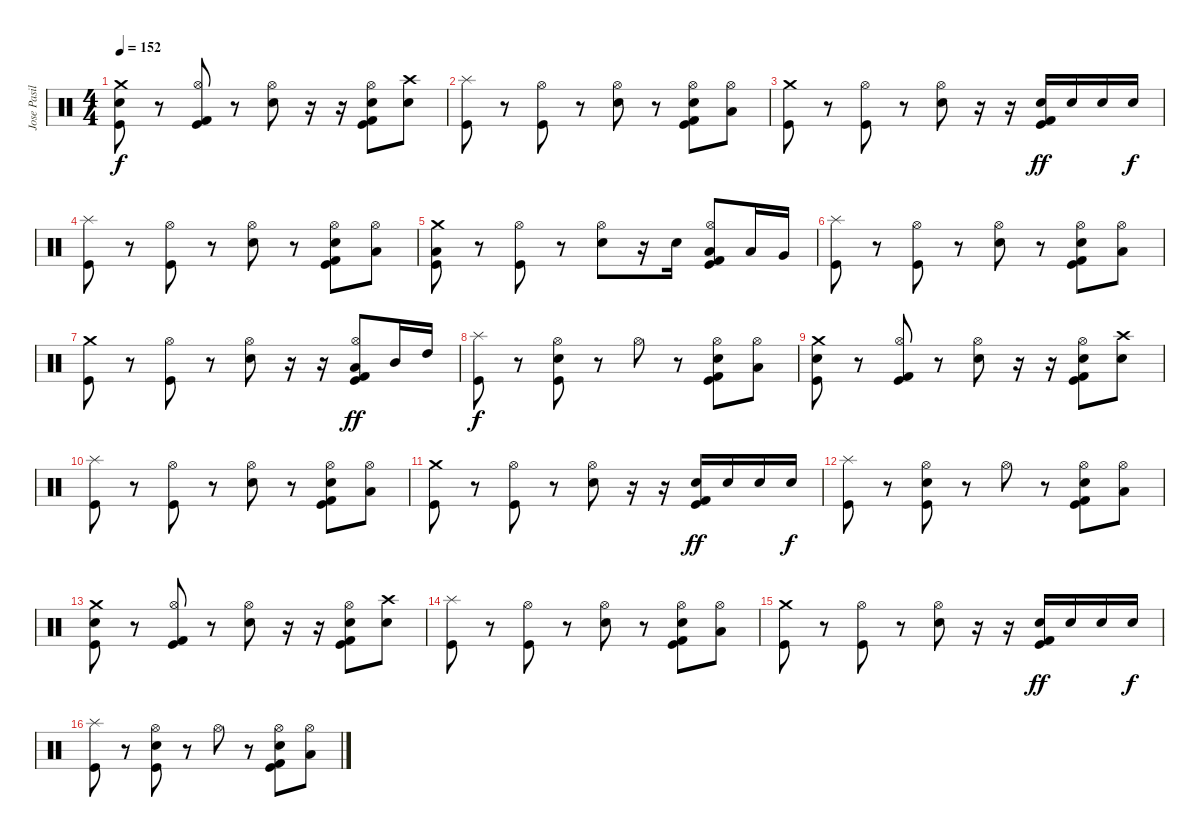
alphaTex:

\track ("Jose Pasillas" "Jose Pasil") {instrument percussion}
\staff {score}
\articulation defaults
\ts (4 4)
\tempo 152
\clef neutral
\ks c
("Crash medium (hit)" "Electric Snare (hit)" "Kick (hit)").8{dy f} r.8 ("Hi-Hat (open)" "Kick (hit) 2" "Kick (hit)").8 r.8 ("Hi-Hat (open)" "Electric Snare (hit)").8 r.16 r.16 ("Hi-Hat (open)" "Electric Snare (hit)" "Kick (hit) 2" "Kick (hit)").8 ("Crash high (hit)" "Electric Snare (hit)").8 |
("Splash (hit)" "Kick (hit)").8 r.8 ("Hi-Hat (open)" "Kick (hit)").8 r.8 ("Hi-Hat (open)" "Electric Snare (hit)").8 r.8 ("Hi-Hat (open)" "Electric Snare (hit)" "Kick (hit) 2" "Kick (hit)").8 ("Hi-Hat (open)" "Low Tom (hit)").8 |
("Crash medium (hit)" "Kick (hit)").8 r.8 ("Hi-Hat (open)" "Kick (hit)").8 r.8 ("Hi-Hat (open)" "Electric Snare (hit)").8 r.16 r.16 ("Electric Snare (hit)" "Kick (hit) 2" "Kick (hit)").16{dy ff} "Electric Snare (hit)".16 "Electric Snare (hit)".16 "Electric Snare (hit)".16{dy f} |
("Splash (hit)" "Kick (hit)").8 r.8 ("Hi-Hat (open)" "Kick (hit)").8 r.8 ("Hi-Hat (open)" "Electric Snare (hit)").8 r.8 ("Hi-Hat (open)" "Electric Snare (hit)" "Kick (hit) 2" "Kick (hit)").8 ("Hi-Hat (open)" "Low Tom (hit)").8 |
("Crash medium (hit)" "Low Floor Tom (hit)" "Kick (hit)").8 r.8 ("Hi-Hat (open)" "Kick (hit)").8 r.8 ("Hi-Hat (open)" "Electric Snare (hit)").8 r.16 "Electric Snare (hit)".16 ("Hi-Hat (open)" "Low Tom (hit)" "Kick (hit) 2" "Kick (hit)").8 "Low Floor Tom (hit)".16 "Very Low Tom (hit)".16 |
("Splash (hit)" "Kick (hit)").8 r.8 ("Hi-Hat (open)" "Kick (hit)").8 r.8 ("Hi-Hat (open)" "Electric Snare (hit)").8 r.8 ("Hi-Hat (open)" "Electric Snare (hit)" "Kick (hit) 2" "Kick (hit)").8 ("Hi-Hat (open)" "Low Tom (hit)").8 |
("Crash medium (hit)" "Kick (hit)").8 r.8 ("Hi-Hat (open)" "Kick (hit)").8 r.8 ("Hi-Hat (open)" "Electric Snare (hit)").8 r.16 r.16 ("Hi-Hat (open)" "Low Tom (hit)" "Kick (hit) 2" "Kick (hit)").8{dy ff} "Mid Tom (hit)".16 "High Tom (hit)".16 |
("Splash (hit)" "Kick (hit)").8{dy f} r.8 ("Hi-Hat (open)" "Electric Snare (hit)" "Kick (hit)").8 r.8 "Hi-Hat (open)".8 r.8 ("Hi-Hat (open)" "Electric Snare (hit)" "Kick (hit) 2" "Kick (hit)").8 ("Hi-Hat (open)" "Low Tom (hit)").8 |
("Crash medium (hit)" "Electric Snare (hit)" "Kick (hit)").8 r.8 ("Hi-Hat (open)" "Kick (hit) 2" "Kick (hit)").8 r.8 ("Hi-Hat (open)" "Electric Snare (hit)").8 r.16 r.16 ("Hi-Hat (open)" "Electric Snare (hit)" "Kick (hit) 2" "Kick (hit)").8 ("Crash high (hit)" "Electric Snare (hit)").8 |
("Splash (hit)" "Kick (hit)").8 r.8 ("Hi-Hat (open)" "Kick (hit)").8 r.8 ("Hi-Hat (open)" "Electric Snare (hit)").8 r.8 ("Hi-Hat (open)" "Electric Snare (hit)" "Kick (hit) 2" "Kick (hit)").8 ("Hi-Hat (open)" "Low Tom (hit)").8 |
("Crash medium (hit)" "Kick (hit)").8 r.8 ("Hi-Hat (open)" "Kick (hit)").8 r.8 ("Hi-Hat (open)" "Electric Snare (hit)").8 r.16 r.16 ("Electric Snare (hit)" "Kick (hit) 2" "Kick (hit)").16{dy ff} "Electric Snare (hit)".16 "Electric Snare (hit)".16 "Electric Snare (hit)".16{dy f} |
("Splash (hit)" "Kick (hit)").8 r.8 ("Hi-Hat (open)" "Electric Snare (hit)" "Kick (hit)").8 r.8 "Hi-Hat (open)".8 r.8 ("Hi-Hat (open)" "Electric Snare (hit)" "Kick (hit) 2" "Kick (hit)").8 ("Hi-Hat (open)" "Low Tom (hit)").8 |
("Crash medium (hit)" "Electric Snare (hit)" "Kick (hit)").8 r.8 ("Hi-Hat (open)" "Kick (hit) 2" "Kick (hit)").8 r.8 ("Hi-Hat (open)" "Electric Snare (hit)").8 r.16 r.16 ("Hi-Hat (open)" "Electric Snare (hit)" "Kick (hit) 2" "Kick (hit)").8 ("Crash high (hit)" "Electric Snare (hit)").8 |
("Splash (hit)" "Kick (hit)").8 r.8 ("Hi-Hat (open)" "Kick (hit)").8 r.8 ("Hi-Hat (open)" "Electric Snare (hit)").8 r.8 ("Hi-Hat (open)" "Electric Snare (hit)" "Kick (hit) 2" "Kick (hit)").8 ("Hi-Hat (open)" "Low Tom (hit)").8 |
("Crash medium (hit)" "Kick (hit)").8 r.8 ("Hi-Hat (open)" "Kick (hit)").8 r.8 ("Hi-Hat (open)" "Electric Snare (hit)").8 r.16 r.16 ("Electric Snare (hit)" "Kick (hit) 2" "Kick (hit)").16{dy ff} "Electric Snare (hit)".16 "Electric Snare (hit)".16 "Electric Snare (hit)".16{dy f} |
("Splash (hit)" "Kick (hit)").8 r.8 ("Hi-Hat (open)" "Electric Snare (hit)" "Kick (hit)").8 r.8 "Hi-Hat (open)".8 r.8 ("Hi-Hat (open)" "Electric Snare (hit)" "Kick (hit) 2" "Kick (hit)").8 ("Hi-Hat (open)" "Low Tom (hit)").8
